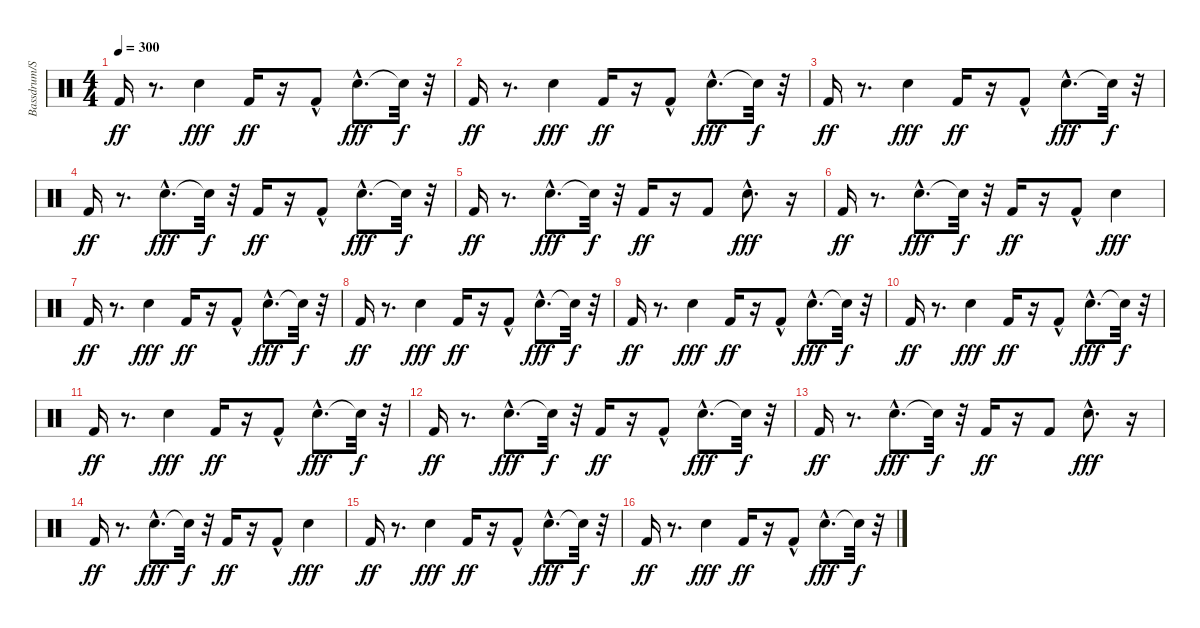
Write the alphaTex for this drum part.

\track ("Bassdrum/Snare" "Bassdrum/S") {instrument percussion}
\staff {score}
\articulation defaults
\ts (4 4)
\tempo 300
\clef neutral
\ks c "Kick (hit) 2".16{dy ff}
r.8{d} "Snare (hit) 2".4{dy fff} "Kick (hit) 2".16{dy ff} r.16 "Kick (hit) 2"{hac}.8 "Snare (hit) 2"{hac}.8{d dy fff} "Snare (hit)"{t}.32{dy f} r.32 |
"Kick (hit) 2".16{dy ff} r.8{d} "Snare (hit) 2".4{dy fff} "Kick (hit) 2".16{dy ff} r.16 "Kick (hit) 2"{hac}.8 "Snare (hit) 2"{hac}.8{d dy fff} "Snare (hit)"{t}.32{dy f} r.32 |
"Kick (hit) 2".16{dy ff} r.8{d} "Snare (hit) 2".4{dy fff} "Kick (hit) 2".16{dy ff} r.16 "Kick (hit) 2"{hac}.8 "Snare (hit) 2"{hac}.8{d dy fff} "Snare (hit)"{t}.32{dy f} r.32 |
"Kick (hit) 2".16{dy ff} r.8{d} "Snare (hit) 2"{hac}.8{d dy fff} "Snare (hit)"{t}.32{dy f} r.32 "Kick (hit) 2".16{dy ff} r.16 "Kick (hit) 2"{hac}.8 "Snare (hit) 2"{hac}.8{d dy fff} "Snare (hit)"{t}.32{dy f} r.32 |
"Kick (hit) 2".16{dy ff} r.8{d} "Snare (hit) 2"{hac}.8{d dy fff} "Snare (hit)"{t}.32{dy f} r.32 "Kick (hit) 2".16{dy ff} r.16 "Kick (hit) 2".8 "Snare (hit) 2"{hac}.8{d dy fff} r.16 |
"Kick (hit) 2".16{dy ff} r.8{d} "Snare (hit) 2"{hac}.8{d dy fff} "Snare (hit)"{t}.32{dy f} r.32 "Kick (hit) 2".16{dy ff} r.16 "Kick (hit) 2"{hac}.8 "Snare (hit) 2".4{dy fff} |
"Kick (hit) 2".16{dy ff} r.8{d} "Snare (hit) 2".4{dy fff} "Kick (hit) 2".16{dy ff} r.16 "Kick (hit) 2"{hac}.8 "Snare (hit) 2"{hac}.8{d dy fff} "Snare (hit)"{t}.32{dy f} r.32 |
"Kick (hit) 2".16{dy ff} r.8{d} "Snare (hit) 2".4{dy fff} "Kick (hit) 2".16{dy ff} r.16 "Kick (hit) 2"{hac}.8 "Snare (hit) 2"{hac}.8{d dy fff} "Snare (hit)"{t}.32{dy f} r.32 |
"Kick (hit) 2".16{dy ff} r.8{d} "Snare (hit) 2".4{dy fff} "Kick (hit) 2".16{dy ff} r.16 "Kick (hit) 2"{hac}.8 "Snare (hit) 2"{hac}.8{d dy fff} "Snare (hit)"{t}.32{dy f} r.32 |
"Kick (hit) 2".16{dy ff} r.8{d} "Snare (hit) 2".4{dy fff} "Kick (hit) 2".16{dy ff} r.16 "Kick (hit) 2"{hac}.8 "Snare (hit) 2"{hac}.8{d dy fff} "Snare (hit)"{t}.32{dy f} r.32 |
"Kick (hit) 2".16{dy ff} r.8{d} "Snare (hit) 2".4{dy fff} "Kick (hit) 2".16{dy ff} r.16 "Kick (hit) 2"{hac}.8 "Snare (hit) 2"{hac}.8{d dy fff} "Snare (hit)"{t}.32{dy f} r.32 |
"Kick (hit) 2".16{dy ff} r.8{d} "Snare (hit) 2"{hac}.8{d dy fff} "Snare (hit)"{t}.32{dy f} r.32 "Kick (hit) 2".16{dy ff} r.16 "Kick (hit) 2"{hac}.8 "Snare (hit) 2"{hac}.8{d dy fff} "Snare (hit)"{t}.32{dy f} r.32 |
"Kick (hit) 2".16{dy ff} r.8{d} "Snare (hit) 2"{hac}.8{d dy fff} "Snare (hit)"{t}.32{dy f} r.32 "Kick (hit) 2".16{dy ff} r.16 "Kick (hit) 2".8 "Snare (hit) 2"{hac}.8{d dy fff} r.16 |
"Kick (hit) 2".16{dy ff} r.8{d} "Snare (hit) 2"{hac}.8{d dy fff} "Snare (hit)"{t}.32{dy f} r.32 "Kick (hit) 2".16{dy ff} r.16 "Kick (hit) 2"{hac}.8 "Snare (hit) 2".4{dy fff} |
"Kick (hit) 2".16{dy ff} r.8{d} "Snare (hit) 2".4{dy fff} "Kick (hit) 2".16{dy ff} r.16 "Kick (hit) 2"{hac}.8 "Snare (hit) 2"{hac}.8{d dy fff} "Snare (hit)"{t}.32{dy f} r.32 |
"Kick (hit) 2".16{dy ff} r.8{d} "Snare (hit) 2".4{dy fff} "Kick (hit) 2".16{dy ff} r.16 "Kick (hit) 2"{hac}.8 "Snare (hit) 2"{hac}.8{d dy fff} "Snare (hit)"{t}.32{dy f} r.32
